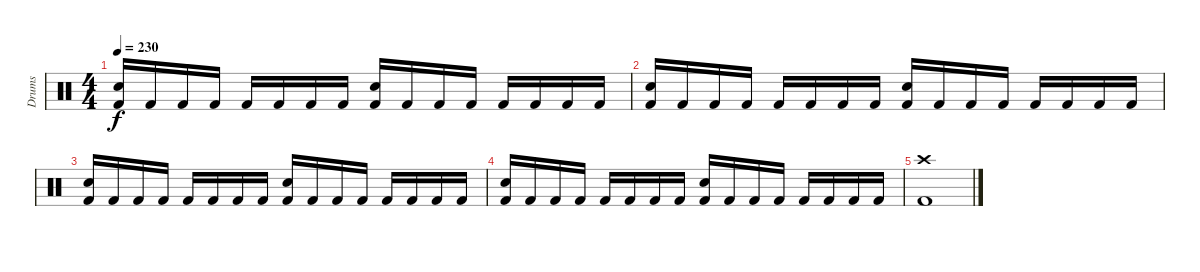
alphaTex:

\track ("Drums" "Drums") {instrument percussion}
\staff {score}
\articulation defaults
\ts (4 4)
\tempo 230
\clef neutral
\ks c
("Electric Snare (hit)" "Kick (hit) 2").16{dy f} "Kick (hit) 2".16 "Kick (hit) 2".16 "Kick (hit) 2".16 "Kick (hit) 2".16 "Kick (hit) 2".16 "Kick (hit) 2".16 "Kick (hit) 2".16 ("Electric Snare (hit)" "Kick (hit) 2").16 "Kick (hit) 2".16 "Kick (hit) 2".16 "Kick (hit) 2".16 "Kick (hit) 2".16 "Kick (hit) 2".16 "Kick (hit) 2".16 "Kick (hit) 2".16 |
("Electric Snare (hit)" "Kick (hit) 2").16 "Kick (hit) 2".16 "Kick (hit) 2".16 "Kick (hit) 2".16 "Kick (hit) 2".16 "Kick (hit) 2".16 "Kick (hit) 2".16 "Kick (hit) 2".16 ("Electric Snare (hit)" "Kick (hit) 2").16 "Kick (hit) 2".16 "Kick (hit) 2".16 "Kick (hit) 2".16 "Kick (hit) 2".16 "Kick (hit) 2".16 "Kick (hit) 2".16 "Kick (hit) 2".16 |
("Electric Snare (hit)" "Kick (hit) 2").16 "Kick (hit) 2".16 "Kick (hit) 2".16 "Kick (hit) 2".16 "Kick (hit) 2".16 "Kick (hit) 2".16 "Kick (hit) 2".16 "Kick (hit) 2".16 ("Kick (hit) 2" "Electric Snare (hit)").16 "Kick (hit) 2".16 "Kick (hit) 2".16 "Kick (hit) 2".16 "Kick (hit) 2".16 "Kick (hit) 2".16 "Kick (hit) 2".16 "Kick (hit) 2".16 |
("Kick (hit) 2" "Electric Snare (hit)").16 "Kick (hit) 2".16 "Kick (hit) 2".16 "Kick (hit) 2".16 "Kick (hit) 2".16 "Kick (hit) 2".16 "Kick (hit) 2".16 "Kick (hit) 2".16 ("Kick (hit) 2" "Electric Snare (hit)").16 "Kick (hit) 2".16 "Kick (hit) 2".16 "Kick (hit) 2".16 "Kick (hit) 2".16 "Kick (hit) 2".16 "Kick (hit) 2".16 "Kick (hit) 2".16 |
("Crash high (hit)" "Kick (hit) 2").1
